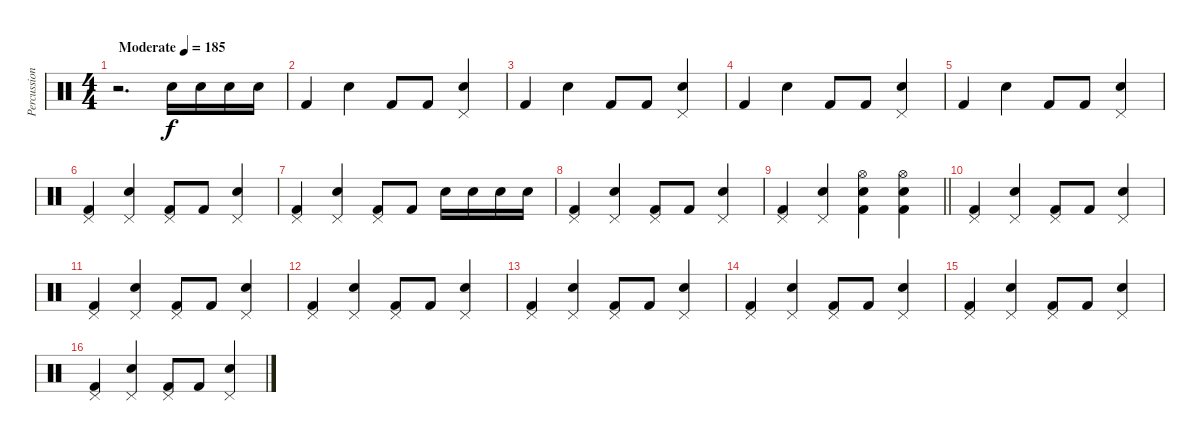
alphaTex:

\track ("Percussion" "Percussion") {instrument percussion}
\staff {score}
\articulation defaults
\ts (4 4)
\tempo (185 "Moderate")
\clef neutral
\ks c
r.2{d dy f} "Electric Snare (hit)".16 "Electric Snare (hit)".16 "Electric Snare (hit)".16 "Electric Snare (hit)".16 |
"Kick (hit) 2".4 "Electric Snare (hit)".4 "Kick (hit) 2".8 "Kick (hit) 2".8 ("Pedal Hi-Hat (hit)" "Electric Snare (hit)").4 |
"Kick (hit) 2".4 "Electric Snare (hit)".4 "Kick (hit) 2".8 "Kick (hit) 2".8 ("Pedal Hi-Hat (hit)" "Electric Snare (hit)").4 |
"Kick (hit) 2".4 "Electric Snare (hit)".4 "Kick (hit) 2".8 "Kick (hit) 2".8 ("Pedal Hi-Hat (hit)" "Electric Snare (hit)").4 |
"Kick (hit) 2".4 "Electric Snare (hit)".4 "Kick (hit) 2".8 "Kick (hit) 2".8 ("Pedal Hi-Hat (hit)" "Electric Snare (hit)").4 |
("Pedal Hi-Hat (hit)" "Kick (hit) 2").4 ("Pedal Hi-Hat (hit)" "Electric Snare (hit)").4 ("Pedal Hi-Hat (hit)" "Kick (hit) 2").8 "Kick (hit) 2".8 ("Pedal Hi-Hat (hit)" "Electric Snare (hit)").4 |
("Pedal Hi-Hat (hit)" "Kick (hit) 2").4 ("Pedal Hi-Hat (hit)" "Electric Snare (hit)").4 ("Pedal Hi-Hat (hit)" "Kick (hit) 2").8 "Kick (hit) 2".8 "Electric Snare (hit)".16 "Electric Snare (hit)".16 "Electric Snare (hit)".16 "Electric Snare (hit)".16 |
("Pedal Hi-Hat (hit)" "Kick (hit) 2").4 ("Pedal Hi-Hat (hit)" "Electric Snare (hit)").4 ("Pedal Hi-Hat (hit)" "Kick (hit) 2").8 "Kick (hit) 2".8 ("Pedal Hi-Hat (hit)" "Electric Snare (hit)").4 |
\barLineRight lightlight
("Pedal Hi-Hat (hit)" "Kick (hit) 2").4 ("Pedal Hi-Hat (hit)" "Electric Snare (hit)").4 ("Kick (hit) 2" "Electric Snare (hit)" "Hi-Hat (open)").4 ("Kick (hit) 2" "Electric Snare (hit)" "Hi-Hat (open)").4 |
("Pedal Hi-Hat (hit)" "Kick (hit) 2").4 ("Pedal Hi-Hat (hit)" "Electric Snare (hit)").4 ("Pedal Hi-Hat (hit)" "Kick (hit) 2").8 "Kick (hit) 2".8 ("Pedal Hi-Hat (hit)" "Electric Snare (hit)").4 |
("Pedal Hi-Hat (hit)" "Kick (hit) 2").4 ("Pedal Hi-Hat (hit)" "Electric Snare (hit)").4 ("Pedal Hi-Hat (hit)" "Kick (hit) 2").8 "Kick (hit) 2".8 ("Pedal Hi-Hat (hit)" "Electric Snare (hit)").4 |
("Pedal Hi-Hat (hit)" "Kick (hit) 2").4 ("Pedal Hi-Hat (hit)" "Electric Snare (hit)").4 ("Pedal Hi-Hat (hit)" "Kick (hit) 2").8 "Kick (hit) 2".8 ("Pedal Hi-Hat (hit)" "Electric Snare (hit)").4 |
("Pedal Hi-Hat (hit)" "Kick (hit) 2").4 ("Pedal Hi-Hat (hit)" "Electric Snare (hit)").4 ("Pedal Hi-Hat (hit)" "Kick (hit) 2").8 "Kick (hit) 2".8 ("Pedal Hi-Hat (hit)" "Electric Snare (hit)").4 |
("Pedal Hi-Hat (hit)" "Kick (hit) 2").4 ("Pedal Hi-Hat (hit)" "Electric Snare (hit)").4 ("Pedal Hi-Hat (hit)" "Kick (hit) 2").8 "Kick (hit) 2".8 ("Pedal Hi-Hat (hit)" "Electric Snare (hit)").4 |
("Pedal Hi-Hat (hit)" "Kick (hit) 2").4 ("Pedal Hi-Hat (hit)" "Electric Snare (hit)").4 ("Pedal Hi-Hat (hit)" "Kick (hit) 2").8 "Kick (hit) 2".8 ("Pedal Hi-Hat (hit)" "Electric Snare (hit)").4 |
("Pedal Hi-Hat (hit)" "Kick (hit) 2").4 ("Pedal Hi-Hat (hit)" "Electric Snare (hit)").4 ("Pedal Hi-Hat (hit)" "Kick (hit) 2").8 "Kick (hit) 2".8 ("Pedal Hi-Hat (hit)" "Electric Snare (hit)").4
